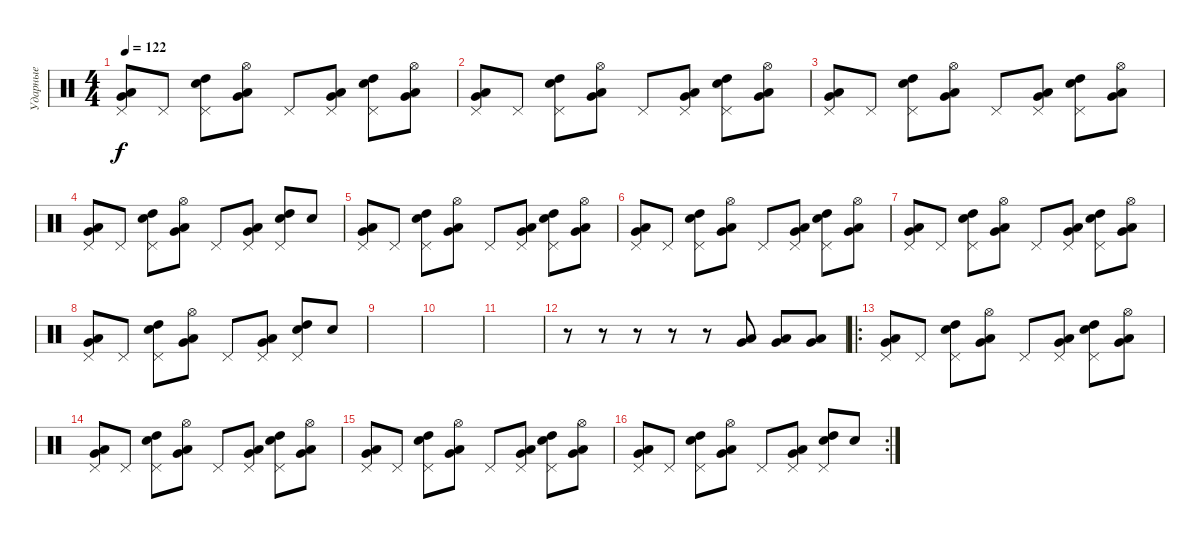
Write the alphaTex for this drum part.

\track ("Ударные" "Ударные") {instrument percussion}
\staff {score}
\articulation defaults
\ts (4 4)
\tempo 122
\clef neutral
\ks c
("Pedal Hi-Hat (hit)" "Low Floor Tom (hit)" "Very Low Tom (hit)").8{dy f} "Pedal Hi-Hat (hit)".8 ("Pedal Hi-Hat (hit)" "High Tom (hit)" "Snare (hit) 2").8 ("Hi-Hat (open)" "Low Floor Tom (hit)" "Very Low Tom (hit)").8 "Pedal Hi-Hat (hit)".8 ("Pedal Hi-Hat (hit)" "Low Floor Tom (hit)" "Very Low Tom (hit)").8 ("Pedal Hi-Hat (hit)" "High Tom (hit)" "Snare (hit) 2").8 ("Hi-Hat (open)" "Low Floor Tom (hit)" "Very Low Tom (hit)").8 |
("Pedal Hi-Hat (hit)" "Low Floor Tom (hit)" "Very Low Tom (hit)").8 "Pedal Hi-Hat (hit)".8 ("Pedal Hi-Hat (hit)" "High Tom (hit)" "Snare (hit) 2").8 ("Hi-Hat (open)" "Low Floor Tom (hit)" "Very Low Tom (hit)").8 "Pedal Hi-Hat (hit)".8 ("Pedal Hi-Hat (hit)" "Low Floor Tom (hit)" "Very Low Tom (hit)").8 ("Pedal Hi-Hat (hit)" "High Tom (hit)" "Snare (hit) 2").8 ("Hi-Hat (open)" "Low Floor Tom (hit)" "Very Low Tom (hit)").8 |
("Pedal Hi-Hat (hit)" "Low Floor Tom (hit)" "Very Low Tom (hit)").8 "Pedal Hi-Hat (hit)".8 ("Pedal Hi-Hat (hit)" "High Tom (hit)" "Snare (hit) 2").8 ("Hi-Hat (open)" "Low Floor Tom (hit)" "Very Low Tom (hit)").8 "Pedal Hi-Hat (hit)".8 ("Pedal Hi-Hat (hit)" "Low Floor Tom (hit)" "Very Low Tom (hit)").8 ("Pedal Hi-Hat (hit)" "High Tom (hit)" "Snare (hit) 2").8 ("Hi-Hat (open)" "Low Floor Tom (hit)" "Very Low Tom (hit)").8 |
("Pedal Hi-Hat (hit)" "Low Floor Tom (hit)" "Very Low Tom (hit)").8 "Pedal Hi-Hat (hit)".8 ("Pedal Hi-Hat (hit)" "High Tom (hit)" "Snare (hit) 2").8 ("Hi-Hat (open)" "Low Floor Tom (hit)" "Very Low Tom (hit)").8 "Pedal Hi-Hat (hit)".8 ("Pedal Hi-Hat (hit)" "Low Floor Tom (hit)" "Very Low Tom (hit)").8 ("Pedal Hi-Hat (hit)" "High Tom (hit)" "Snare (hit) 2").8 "Snare (hit) 2".8 |
("Pedal Hi-Hat (hit)" "Low Floor Tom (hit)" "Very Low Tom (hit)").8 "Pedal Hi-Hat (hit)".8 ("Pedal Hi-Hat (hit)" "High Tom (hit)" "Snare (hit) 2").8 ("Hi-Hat (open)" "Low Floor Tom (hit)" "Very Low Tom (hit)").8 "Pedal Hi-Hat (hit)".8 ("Pedal Hi-Hat (hit)" "Low Floor Tom (hit)" "Very Low Tom (hit)").8 ("Pedal Hi-Hat (hit)" "High Tom (hit)" "Snare (hit) 2").8 ("Hi-Hat (open)" "Low Floor Tom (hit)" "Very Low Tom (hit)").8 |
("Pedal Hi-Hat (hit)" "Low Floor Tom (hit)" "Very Low Tom (hit)").8 "Pedal Hi-Hat (hit)".8 ("Pedal Hi-Hat (hit)" "High Tom (hit)" "Snare (hit) 2").8 ("Hi-Hat (open)" "Low Floor Tom (hit)" "Very Low Tom (hit)").8 "Pedal Hi-Hat (hit)".8 ("Pedal Hi-Hat (hit)" "Low Floor Tom (hit)" "Very Low Tom (hit)").8 ("Pedal Hi-Hat (hit)" "High Tom (hit)" "Snare (hit) 2").8 ("Hi-Hat (open)" "Low Floor Tom (hit)" "Very Low Tom (hit)").8 |
("Pedal Hi-Hat (hit)" "Low Floor Tom (hit)" "Very Low Tom (hit)").8 "Pedal Hi-Hat (hit)".8 ("Pedal Hi-Hat (hit)" "High Tom (hit)" "Snare (hit) 2").8 ("Hi-Hat (open)" "Low Floor Tom (hit)" "Very Low Tom (hit)").8 "Pedal Hi-Hat (hit)".8 ("Pedal Hi-Hat (hit)" "Low Floor Tom (hit)" "Very Low Tom (hit)").8 ("Pedal Hi-Hat (hit)" "High Tom (hit)" "Snare (hit) 2").8 ("Hi-Hat (open)" "Low Floor Tom (hit)" "Very Low Tom (hit)").8 |
("Pedal Hi-Hat (hit)" "Low Floor Tom (hit)" "Very Low Tom (hit)").8 "Pedal Hi-Hat (hit)".8 ("Pedal Hi-Hat (hit)" "High Tom (hit)" "Snare (hit) 2").8 ("Hi-Hat (open)" "Low Floor Tom (hit)" "Very Low Tom (hit)").8 "Pedal Hi-Hat (hit)".8 ("Pedal Hi-Hat (hit)" "Low Floor Tom (hit)" "Very Low Tom (hit)").8 ("Pedal Hi-Hat (hit)" "High Tom (hit)" "Snare (hit) 2").8 "Snare (hit) 2".8 |
|
|
|
r.8 r.8 r.8 r.8 r.8 ("Low Tom (hit)" "Very Low Tom (hit)").8 ("Low Tom (hit)" "Very Low Tom (hit)").8 ("Low Tom (hit)" "Very Low Tom (hit)").8 |
\ro
("Pedal Hi-Hat (hit)" "Low Floor Tom (hit)" "Very Low Tom (hit)").8 "Pedal Hi-Hat (hit)".8 ("Pedal Hi-Hat (hit)" "High Tom (hit)" "Snare (hit) 2").8 ("Hi-Hat (open)" "Low Floor Tom (hit)" "Very Low Tom (hit)").8 "Pedal Hi-Hat (hit)".8 ("Pedal Hi-Hat (hit)" "Low Floor Tom (hit)" "Very Low Tom (hit)").8 ("Pedal Hi-Hat (hit)" "High Tom (hit)" "Snare (hit) 2").8 ("Hi-Hat (open)" "Low Floor Tom (hit)" "Very Low Tom (hit)").8 |
("Pedal Hi-Hat (hit)" "Low Floor Tom (hit)" "Very Low Tom (hit)").8 "Pedal Hi-Hat (hit)".8 ("Pedal Hi-Hat (hit)" "High Tom (hit)" "Snare (hit) 2").8 ("Hi-Hat (open)" "Low Floor Tom (hit)" "Very Low Tom (hit)").8 "Pedal Hi-Hat (hit)".8 ("Pedal Hi-Hat (hit)" "Low Floor Tom (hit)" "Very Low Tom (hit)").8 ("Pedal Hi-Hat (hit)" "High Tom (hit)" "Snare (hit) 2").8 ("Hi-Hat (open)" "Low Floor Tom (hit)" "Very Low Tom (hit)").8 |
("Pedal Hi-Hat (hit)" "Low Floor Tom (hit)" "Very Low Tom (hit)").8 "Pedal Hi-Hat (hit)".8 ("Pedal Hi-Hat (hit)" "High Tom (hit)" "Snare (hit) 2").8 ("Hi-Hat (open)" "Low Floor Tom (hit)" "Very Low Tom (hit)").8 "Pedal Hi-Hat (hit)".8 ("Pedal Hi-Hat (hit)" "Low Floor Tom (hit)" "Very Low Tom (hit)").8 ("Pedal Hi-Hat (hit)" "High Tom (hit)" "Snare (hit) 2").8 ("Hi-Hat (open)" "Low Floor Tom (hit)" "Very Low Tom (hit)").8 |
\rc 2
("Pedal Hi-Hat (hit)" "Low Floor Tom (hit)" "Very Low Tom (hit)").8 "Pedal Hi-Hat (hit)".8 ("Pedal Hi-Hat (hit)" "High Tom (hit)" "Snare (hit) 2").8 ("Hi-Hat (open)" "Low Floor Tom (hit)" "Very Low Tom (hit)").8 "Pedal Hi-Hat (hit)".8 ("Pedal Hi-Hat (hit)" "Low Floor Tom (hit)" "Very Low Tom (hit)").8 ("Pedal Hi-Hat (hit)" "High Tom (hit)" "Snare (hit) 2").8 "Snare (hit) 2".8
